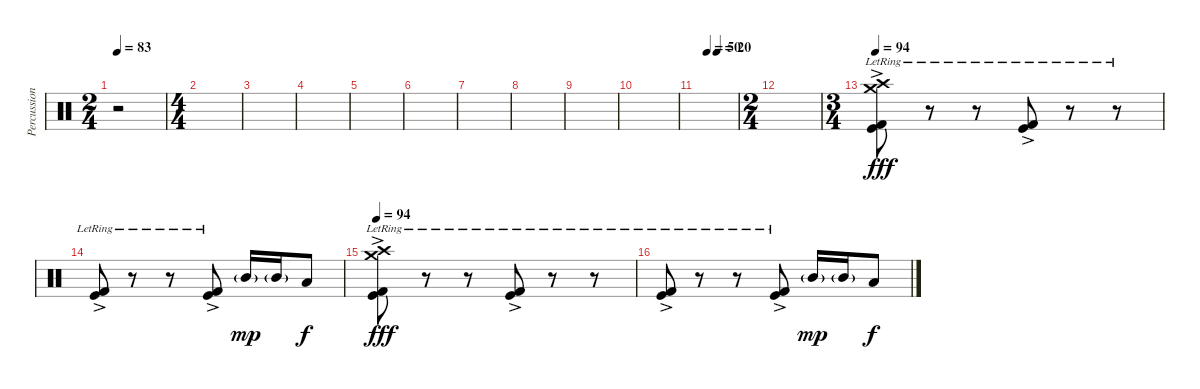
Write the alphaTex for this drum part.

\track ("Percussion" "Percussion") {instrument percussion}
\staff {score}
\articulation defaults
\ts (2 4)
\tempo 83
\clef neutral
\ks c
r.2{dy fff} |
\ts (4 4)
|
|
|
|
|
|
|
|
|
\tempo (50 0.25)
\tempo (20 0.5)
|
\ts (2 4)
|
\ts (3 4)
\tempo 94
("Crash high (hit)" "Crash medium (hit)" "Kick (hit)" "Kick (hit) 2"{ac lr}).8 r.8 r.8 ("Kick (hit)" "Kick (hit) 2"{ac lr}).8 r.8 r.8 |
("Kick (hit)" "Kick (hit) 2"{ac lr}).8 r.8 r.8 ("Kick (hit)" "Kick (hit) 2"{ac lr}).8 "Mid Tom (hit)"{g}.16{dy mp} "Mid Tom (hit)"{g}.16 "Low Tom (hit)".8{dy f} |
\tempo 94
("Crash high (hit)" "Crash medium (hit)" "Kick (hit)" "Kick (hit) 2"{ac lr}).8{dy fff} r.8 r.8 ("Kick (hit)" "Kick (hit) 2"{ac lr}).8 r.8 r.8 |
("Kick (hit)" "Kick (hit) 2"{ac lr}).8 r.8 r.8 ("Kick (hit)" "Kick (hit) 2"{ac lr}).8 "Mid Tom (hit)"{g}.16{dy mp} "Mid Tom (hit)"{g}.16 "Low Tom (hit)".8{dy f}
